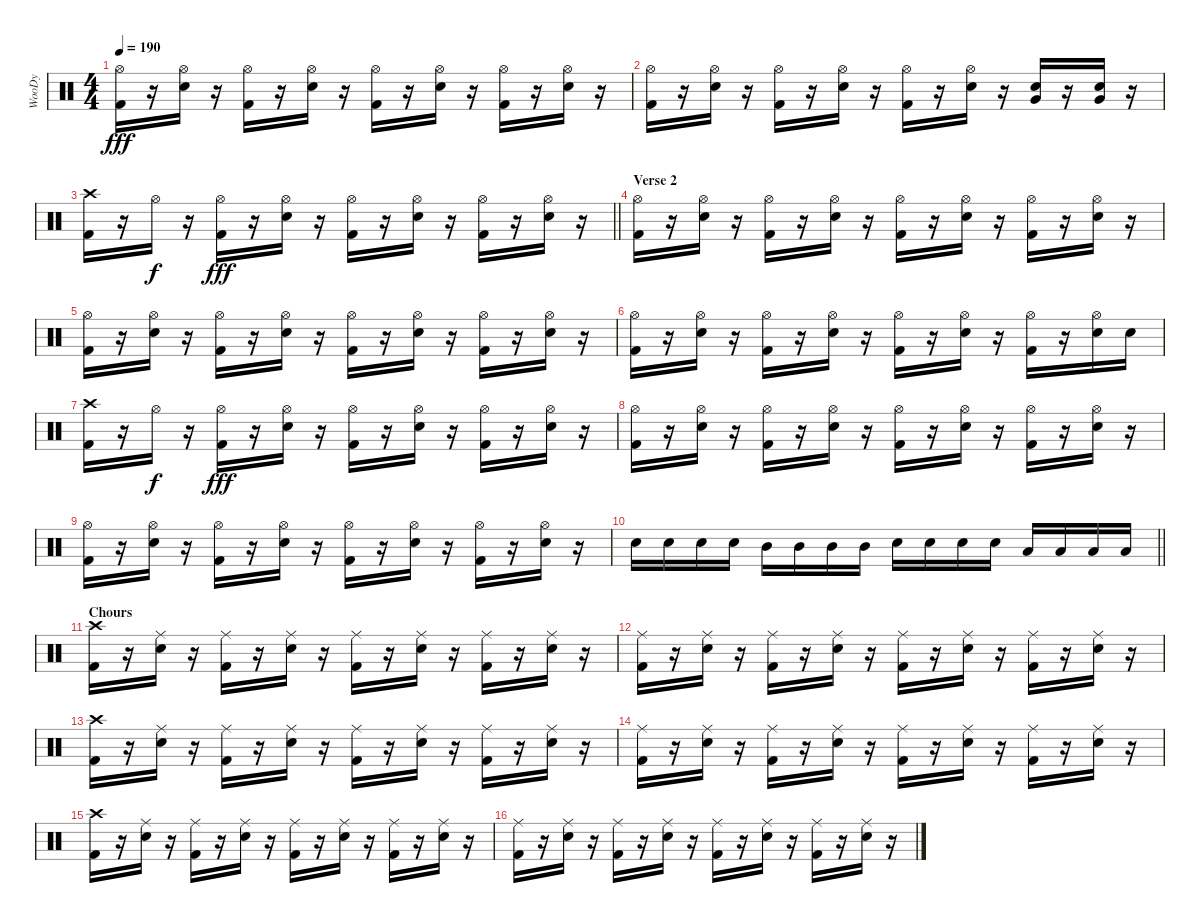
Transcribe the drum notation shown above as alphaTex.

\track ("WooDy" "WooDy") {instrument percussion}
\staff {score}
\articulation defaults
\ts (4 4)
\tempo 190
\clef neutral
\ks c
("Kick (hit) 2" "Hi-Hat (open)").16{dy fff} r.16 ("Snare (hit) 2" "Hi-Hat (open)").16 r.16 ("Kick (hit) 2" "Hi-Hat (open)").16 r.16 ("Snare (hit) 2" "Hi-Hat (open)").16 r.16 ("Kick (hit) 2" "Hi-Hat (open)").16 r.16 ("Snare (hit) 2" "Hi-Hat (open)").16 r.16 ("Kick (hit) 2" "Hi-Hat (open)").16 r.16 ("Snare (hit) 2" "Hi-Hat (open)").16 r.16 |
("Kick (hit) 2" "Hi-Hat (open)").16 r.16 ("Snare (hit) 2" "Hi-Hat (open)").16 r.16 ("Kick (hit) 2" "Hi-Hat (open)").16 r.16 ("Snare (hit) 2" "Hi-Hat (open)").16 r.16 ("Kick (hit) 2" "Hi-Hat (open)").16 r.16 ("Snare (hit) 2" "Hi-Hat (open)").16 r.16 ("Snare (hit) 2" "Very Low Tom (hit)").16 r.16 ("Snare (hit) 2" "Very Low Tom (hit)").16 r.16 |
\barLineRight lightlight
("Kick (hit) 2" "Crash high (hit)").16 r.16 "Hi-Hat (open)".16{dy f} r.16 ("Kick (hit) 2" "Hi-Hat (open)").16{dy fff} r.16 ("Snare (hit) 2" "Hi-Hat (open)").16 r.16 ("Kick (hit) 2" "Hi-Hat (open)").16 r.16 ("Snare (hit) 2" "Hi-Hat (open)").16 r.16 ("Kick (hit) 2" "Hi-Hat (open)").16 r.16 ("Snare (hit) 2" "Hi-Hat (open)").16 r.16 |
\section ("" "Verse 2")
("Kick (hit) 2" "Hi-Hat (open)").16 r.16 ("Snare (hit) 2" "Hi-Hat (open)").16 r.16 ("Kick (hit) 2" "Hi-Hat (open)").16 r.16 ("Snare (hit) 2" "Hi-Hat (open)").16 r.16 ("Kick (hit) 2" "Hi-Hat (open)").16 r.16 ("Snare (hit) 2" "Hi-Hat (open)").16 r.16 ("Kick (hit) 2" "Hi-Hat (open)").16 r.16 ("Snare (hit) 2" "Hi-Hat (open)").16 r.16 |
("Kick (hit) 2" "Hi-Hat (open)").16 r.16 ("Snare (hit) 2" "Hi-Hat (open)").16 r.16 ("Kick (hit) 2" "Hi-Hat (open)").16 r.16 ("Snare (hit) 2" "Hi-Hat (open)").16 r.16 ("Kick (hit) 2" "Hi-Hat (open)").16 r.16 ("Snare (hit) 2" "Hi-Hat (open)").16 r.16 ("Kick (hit) 2" "Hi-Hat (open)").16 r.16 ("Snare (hit) 2" "Hi-Hat (open)").16 r.16 |
("Kick (hit) 2" "Hi-Hat (open)").16 r.16 ("Snare (hit) 2" "Hi-Hat (open)").16 r.16 ("Kick (hit) 2" "Hi-Hat (open)").16 r.16 ("Snare (hit) 2" "Hi-Hat (open)").16 r.16 ("Kick (hit) 2" "Hi-Hat (open)").16 r.16 ("Snare (hit) 2" "Hi-Hat (open)").16 r.16 ("Kick (hit) 2" "Hi-Hat (open)").16 r.16 ("Snare (hit) 2" "Hi-Hat (open)").16 "Snare (hit) 2".16 |
("Kick (hit) 2" "Crash high (hit)").16 r.16 "Hi-Hat (open)".16{dy f} r.16 ("Kick (hit) 2" "Hi-Hat (open)").16{dy fff} r.16 ("Snare (hit) 2" "Hi-Hat (open)").16 r.16 ("Kick (hit) 2" "Hi-Hat (open)").16 r.16 ("Snare (hit) 2" "Hi-Hat (open)").16 r.16 ("Kick (hit) 2" "Hi-Hat (open)").16 r.16 ("Snare (hit) 2" "Hi-Hat (open)").16 r.16 |
("Kick (hit) 2" "Hi-Hat (open)").16 r.16 ("Snare (hit) 2" "Hi-Hat (open)").16 r.16 ("Kick (hit) 2" "Hi-Hat (open)").16 r.16 ("Snare (hit) 2" "Hi-Hat (open)").16 r.16 ("Kick (hit) 2" "Hi-Hat (open)").16 r.16 ("Snare (hit) 2" "Hi-Hat (open)").16 r.16 ("Kick (hit) 2" "Hi-Hat (open)").16 r.16 ("Snare (hit) 2" "Hi-Hat (open)").16 r.16 |
("Kick (hit) 2" "Hi-Hat (open)").16 r.16 ("Snare (hit) 2" "Hi-Hat (open)").16 r.16 ("Kick (hit) 2" "Hi-Hat (open)").16 r.16 ("Snare (hit) 2" "Hi-Hat (open)").16 r.16 ("Kick (hit) 2" "Hi-Hat (open)").16 r.16 ("Snare (hit) 2" "Hi-Hat (open)").16 r.16 ("Kick (hit) 2" "Hi-Hat (open)").16 r.16 ("Snare (hit) 2" "Hi-Hat (open)").16 r.16 |
\barLineRight lightlight "Snare (hit) 2".16 "Snare (hit) 2".16 "Snare (hit) 2".16 "Snare (hit) 2".16 "Mid Tom (hit)".16 "Mid Tom (hit)".16 "Mid Tom (hit)".16 "Mid Tom (hit)".16 "Snare (hit) 2".16 "Snare (hit) 2".16 "Snare (hit) 2".16 "Snare (hit) 2".16 "Low Tom (hit)".16 "Low Tom (hit)".16 "Low Tom (hit)".16 "Low Tom (hit)".16
|
\section ("" "Chours")
("Kick (hit) 2" "Crash high (hit)").16 r.16 ("Snare (hit) 2" "Ride (middle)").16 r.16 ("Kick (hit) 2" "Ride (middle)").16 r.16 ("Snare (hit) 2" "Ride (middle)").16 r.16 ("Kick (hit) 2" "Ride (middle)").16 r.16 ("Snare (hit) 2" "Ride (middle)").16 r.16 ("Kick (hit) 2" "Ride (middle)").16 r.16 ("Snare (hit) 2" "Ride (middle)").16 r.16 |
("Kick (hit) 2" "Ride (middle)").16 r.16 ("Snare (hit) 2" "Ride (middle)").16 r.16 ("Kick (hit) 2" "Ride (middle)").16 r.16 ("Snare (hit) 2" "Ride (middle)").16 r.16 ("Kick (hit) 2" "Ride (middle)").16 r.16 ("Snare (hit) 2" "Ride (middle)").16 r.16 ("Kick (hit) 2" "Ride (middle)").16 r.16 ("Snare (hit) 2" "Ride (middle)").16 r.16 |
("Kick (hit) 2" "Crash high (hit)").16 r.16 ("Snare (hit) 2" "Ride (middle)").16 r.16 ("Kick (hit) 2" "Ride (middle)").16 r.16 ("Snare (hit) 2" "Ride (middle)").16 r.16 ("Kick (hit) 2" "Ride (middle)").16 r.16 ("Snare (hit) 2" "Ride (middle)").16 r.16 ("Kick (hit) 2" "Ride (middle)").16 r.16 ("Snare (hit) 2" "Ride (middle)").16 r.16 |
("Kick (hit) 2" "Ride (middle)").16 r.16 ("Snare (hit) 2" "Ride (middle)").16 r.16 ("Kick (hit) 2" "Ride (middle)").16 r.16 ("Snare (hit) 2" "Ride (middle)").16 r.16 ("Kick (hit) 2" "Ride (middle)").16 r.16 ("Snare (hit) 2" "Ride (middle)").16 r.16 ("Kick (hit) 2" "Ride (middle)").16 r.16 ("Snare (hit) 2" "Ride (middle)").16 r.16 |
("Kick (hit) 2" "Crash high (hit)").16 r.16 ("Snare (hit) 2" "Ride (middle)").16 r.16 ("Kick (hit) 2" "Ride (middle)").16 r.16 ("Snare (hit) 2" "Ride (middle)").16 r.16 ("Kick (hit) 2" "Ride (middle)").16 r.16 ("Snare (hit) 2" "Ride (middle)").16 r.16 ("Kick (hit) 2" "Ride (middle)").16 r.16 ("Snare (hit) 2" "Ride (middle)").16 r.16 |
("Kick (hit) 2" "Ride (middle)").16 r.16 ("Snare (hit) 2" "Ride (middle)").16 r.16 ("Kick (hit) 2" "Ride (middle)").16 r.16 ("Snare (hit) 2" "Ride (middle)").16 r.16 ("Kick (hit) 2" "Ride (middle)").16 r.16 ("Snare (hit) 2" "Ride (middle)").16 r.16 ("Kick (hit) 2" "Ride (middle)").16 r.16 ("Snare (hit) 2" "Ride (middle)").16 r.16
